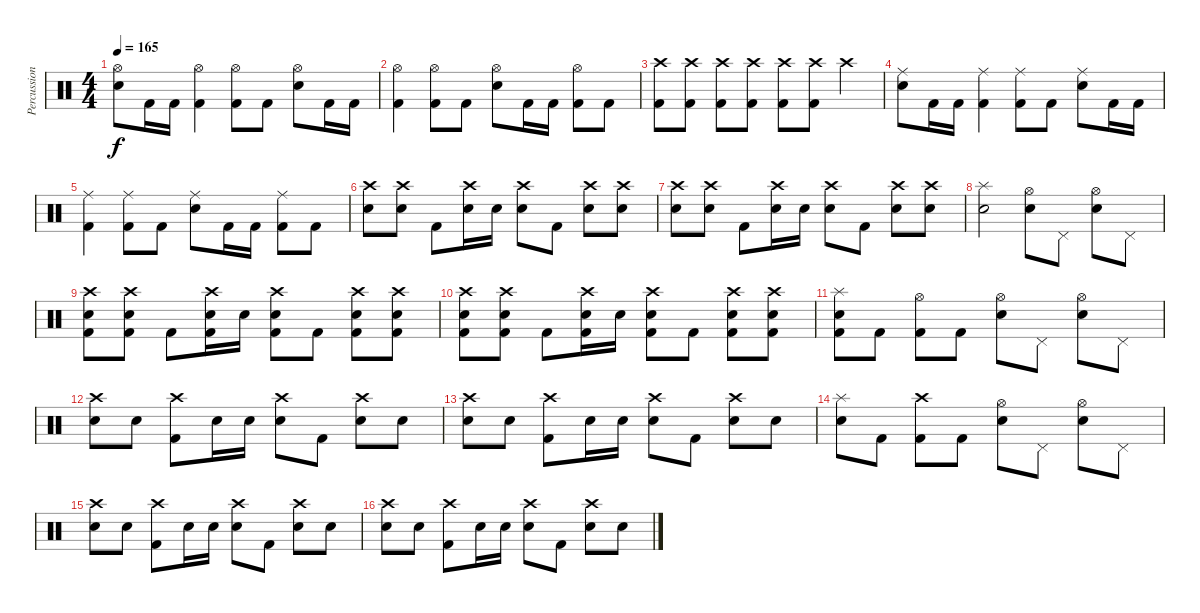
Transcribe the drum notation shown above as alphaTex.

\track ("Percussion" "Percussion") {instrument percussion}
\staff {score}
\articulation defaults
\ts (4 4)
\tempo 165
\clef neutral
\ks c
("Hi-Hat (open)" "Electric Snare (hit)").8{dy f} "Kick (hit) 2".16 "Kick (hit) 2".16 ("Hi-Hat (open)" "Kick (hit) 2").4 ("Hi-Hat (open)" "Kick (hit) 2").8 "Kick (hit) 2".8 ("Hi-Hat (open)" "Electric Snare (hit)").8 "Kick (hit) 2".16 "Kick (hit) 2".16 |
("Hi-Hat (open)" "Kick (hit) 2").4 ("Hi-Hat (open)" "Kick (hit) 2").8 "Kick (hit) 2".8 ("Hi-Hat (open)" "Electric Snare (hit)").8 "Kick (hit) 2".16 "Kick (hit) 2".16 ("Hi-Hat (open)" "Kick (hit) 2").8 "Kick (hit) 2".8 |
("Crash high (hit)" "Kick (hit) 2").8 ("Crash high (hit)" "Kick (hit) 2").8 ("Crash high (hit)" "Kick (hit) 2").8 ("Crash high (hit)" "Kick (hit) 2").8 ("Crash high (hit)" "Kick (hit) 2").8 ("Crash high (hit)" "Kick (hit) 2").8 "Crash high (hit)".4 |
("Ride (middle)" "Electric Snare (hit)").8 "Kick (hit) 2".16 "Kick (hit) 2".16 ("Ride (middle)" "Kick (hit) 2").4 ("Ride (middle)" "Kick (hit) 2").8 "Kick (hit) 2".8 ("Ride (middle)" "Electric Snare (hit)").8 "Kick (hit) 2".16 "Kick (hit) 2".16 |
("Ride (middle)" "Kick (hit) 2").4 ("Ride (middle)" "Kick (hit) 2").8 "Kick (hit) 2".8 ("Ride (middle)" "Electric Snare (hit)").8 "Kick (hit) 2".16 "Kick (hit) 2".16 ("Ride (middle)" "Kick (hit) 2").8 "Kick (hit) 2".8 |
("Crash high (hit)" "Electric Snare (hit)").8 ("Crash high (hit)" "Electric Snare (hit)").8 "Kick (hit) 2".8 ("Crash high (hit)" "Electric Snare (hit)").16 "Electric Snare (hit)".16 ("Crash high (hit)" "Electric Snare (hit)").8 "Kick (hit) 2".8 ("Crash high (hit)" "Electric Snare (hit)").8 ("Crash high (hit)" "Electric Snare (hit)").8 |
("Crash high (hit)" "Electric Snare (hit)").8 ("Crash high (hit)" "Electric Snare (hit)").8 "Kick (hit) 2".8 ("Crash high (hit)" "Electric Snare (hit)").16 "Electric Snare (hit)".16 ("Crash high (hit)" "Electric Snare (hit)").8 "Kick (hit) 2".8 ("Crash high (hit)" "Electric Snare (hit)").8 ("Crash high (hit)" "Electric Snare (hit)").8 |
("Splash (hit)" "Electric Snare (hit)").2 ("Hi-Hat (open)" "Electric Snare (hit)").8 "Pedal Hi-Hat (hit)".8 ("Hi-Hat (open)" "Electric Snare (hit)").8 "Pedal Hi-Hat (hit)".8 |
("Crash high (hit)" "Electric Snare (hit)" "Kick (hit) 2").8 ("Crash high (hit)" "Electric Snare (hit)" "Kick (hit) 2").8 "Kick (hit) 2".8 ("Crash high (hit)" "Electric Snare (hit)" "Kick (hit) 2").16 "Electric Snare (hit)".16 ("Crash high (hit)" "Electric Snare (hit)" "Kick (hit) 2").8 "Kick (hit) 2".8 ("Crash high (hit)" "Electric Snare (hit)" "Kick (hit) 2").8 ("Crash high (hit)" "Electric Snare (hit)" "Kick (hit) 2").8 |
("Crash high (hit)" "Electric Snare (hit)" "Kick (hit) 2").8 ("Crash high (hit)" "Electric Snare (hit)" "Kick (hit) 2").8 "Kick (hit) 2".8 ("Crash high (hit)" "Electric Snare (hit)" "Kick (hit) 2").16 "Electric Snare (hit)".16 ("Crash high (hit)" "Electric Snare (hit)" "Kick (hit) 2").8 "Kick (hit) 2".8 ("Crash high (hit)" "Electric Snare (hit)" "Kick (hit) 2").8 ("Crash high (hit)" "Electric Snare (hit)" "Kick (hit) 2").8 |
("Splash (hit)" "Electric Snare (hit)" "Kick (hit) 2").8 "Kick (hit) 2".8 ("Hi-Hat (open)" "Kick (hit) 2").8 "Kick (hit) 2".8 ("Hi-Hat (open)" "Electric Snare (hit)").8 "Pedal Hi-Hat (hit)".8 ("Hi-Hat (open)" "Electric Snare (hit)").8 "Pedal Hi-Hat (hit)".8 |
("Crash high (hit)" "Electric Snare (hit)").8 "Electric Snare (hit)".8 ("Crash high (hit)" "Kick (hit) 2").8 "Electric Snare (hit)".16 "Electric Snare (hit)".16 ("Crash high (hit)" "Electric Snare (hit)").8 "Kick (hit) 2".8 ("Crash high (hit)" "Electric Snare (hit)").8 "Electric Snare (hit)".8 |
("Crash high (hit)" "Electric Snare (hit)").8 "Electric Snare (hit)".8 ("Crash high (hit)" "Kick (hit) 2").8 "Electric Snare (hit)".16 "Electric Snare (hit)".16 ("Crash high (hit)" "Electric Snare (hit)").8 "Kick (hit) 2".8 ("Crash high (hit)" "Electric Snare (hit)").8 "Electric Snare (hit)".8 |
("Splash (hit)" "Electric Snare (hit)").8 "Kick (hit) 2".8 ("Crash high (hit)" "Kick (hit) 2").8 "Kick (hit) 2".8 ("Hi-Hat (open)" "Electric Snare (hit)").8 "Pedal Hi-Hat (hit)".8 ("Hi-Hat (open)" "Electric Snare (hit)").8 "Pedal Hi-Hat (hit)".8 |
("Crash high (hit)" "Electric Snare (hit)").8 "Electric Snare (hit)".8 ("Crash high (hit)" "Kick (hit) 2").8 "Electric Snare (hit)".16 "Electric Snare (hit)".16 ("Crash high (hit)" "Electric Snare (hit)").8 "Kick (hit) 2".8 ("Crash high (hit)" "Electric Snare (hit)").8 "Electric Snare (hit)".8 |
("Crash high (hit)" "Electric Snare (hit)").8 "Electric Snare (hit)".8 ("Crash high (hit)" "Kick (hit) 2").8 "Electric Snare (hit)".16 "Electric Snare (hit)".16 ("Crash high (hit)" "Electric Snare (hit)").8 "Kick (hit) 2".8 ("Crash high (hit)" "Electric Snare (hit)").8 "Electric Snare (hit)".8
